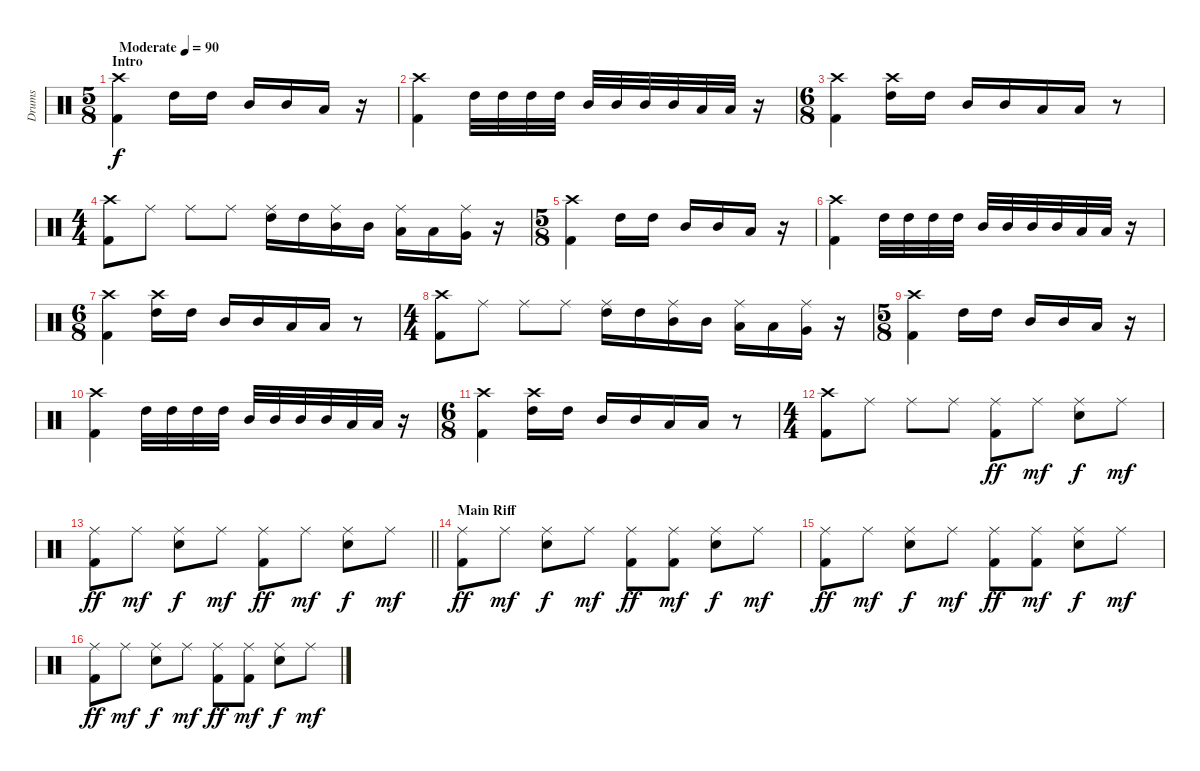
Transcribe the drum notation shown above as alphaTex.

\track ("Drums" "Drums") {instrument percussion}
\staff {score}
\articulation defaults
\ts (5 8)
\section ("" "Intro")
\tempo (90 "Moderate")
\clef neutral
\ks c
("Crash high (hit)" "Kick (hit) 2").4{dy f} "High Tom (hit)".16 "High Tom (hit)".16 "Mid Tom (hit)".16 "Mid Tom (hit)".16 "Low Tom (hit)".16 r.16 |
("Crash high (hit)" "Kick (hit) 2").4 "High Tom (hit)".32 "High Tom (hit)".32 "High Tom (hit)".32 "High Tom (hit)".32 "Mid Tom (hit)".32 "Mid Tom (hit)".32 "Mid Tom (hit)".32 "Mid Tom (hit)".32 "Low Tom (hit)".32 "Low Tom (hit)".32 r.16 |
\ts (6 8)
("Crash high (hit)" "Kick (hit) 2").4 ("Crash high (hit)" "High Tom (hit)").16 "High Tom (hit)".16 "Mid Tom (hit)".16 "Mid Tom (hit)".16 "Low Tom (hit)".16 "Low Tom (hit)".16 r.8 |
\ts (4 4)
("Crash high (hit)" "Kick (hit) 2").8 "Ride (middle)".8 "Ride (middle)".8 "Ride (middle)".8 ("Ride (middle)" "High Tom (hit)").16 "High Tom (hit)".16 ("Ride (middle)" "Mid Tom (hit)").16 "Mid Tom (hit)".16 ("Ride (middle)" "Low Tom (hit)").16 "Low Tom (hit)".16 ("Ride (middle)" "Very Low Tom (hit)").16 r.16 |
\ts (5 8)
("Crash high (hit)" "Kick (hit) 2").4 "High Tom (hit)".16 "High Tom (hit)".16 "Mid Tom (hit)".16 "Mid Tom (hit)".16 "Low Tom (hit)".16 r.16 |
("Crash high (hit)" "Kick (hit) 2").4 "High Tom (hit)".32 "High Tom (hit)".32 "High Tom (hit)".32 "High Tom (hit)".32 "Mid Tom (hit)".32 "Mid Tom (hit)".32 "Mid Tom (hit)".32 "Mid Tom (hit)".32 "Low Tom (hit)".32 "Low Tom (hit)".32 r.16 |
\ts (6 8)
("Crash high (hit)" "Kick (hit) 2").4 ("Crash high (hit)" "High Tom (hit)").16 "High Tom (hit)".16 "Mid Tom (hit)".16 "Mid Tom (hit)".16 "Low Tom (hit)".16 "Low Tom (hit)".16 r.8 |
\ts (4 4)
("Crash high (hit)" "Kick (hit) 2").8 "Ride (middle)".8 "Ride (middle)".8 "Ride (middle)".8 ("Ride (middle)" "High Tom (hit)").16 "High Tom (hit)".16 ("Ride (middle)" "Mid Tom (hit)").16 "Mid Tom (hit)".16 ("Ride (middle)" "Low Tom (hit)").16 "Low Tom (hit)".16 ("Ride (middle)" "Very Low Tom (hit)").16 r.16 |
\ts (5 8)
("Crash high (hit)" "Kick (hit) 2").4 "High Tom (hit)".16 "High Tom (hit)".16 "Mid Tom (hit)".16 "Mid Tom (hit)".16 "Low Tom (hit)".16 r.16 |
("Crash high (hit)" "Kick (hit) 2").4 "High Tom (hit)".32 "High Tom (hit)".32 "High Tom (hit)".32 "High Tom (hit)".32 "Mid Tom (hit)".32 "Mid Tom (hit)".32 "Mid Tom (hit)".32 "Mid Tom (hit)".32 "Low Tom (hit)".32 "Low Tom (hit)".32 r.16 |
\ts (6 8)
("Crash high (hit)" "Kick (hit) 2").4 ("Crash high (hit)" "High Tom (hit)").16 "High Tom (hit)".16 "Mid Tom (hit)".16 "Mid Tom (hit)".16 "Low Tom (hit)".16 "Low Tom (hit)".16 r.8 |
\ts (4 4)
("Crash high (hit)" "Kick (hit) 2").8 "Ride (middle)".8 "Ride (middle)".8 "Ride (middle)".8 ("Ride (middle)" "Kick (hit) 2").8{dy ff} "Ride (middle)".8{dy mf} ("Ride (middle)" "Electric Snare (hit)").8{dy f} "Ride (middle)".8{dy mf} |
\barLineRight lightlight
("Ride (middle)" "Kick (hit) 2").8{dy ff} "Ride (middle)".8{dy mf} ("Ride (middle)" "Electric Snare (hit)").8{dy f} "Ride (middle)".8{dy mf} ("Ride (middle)" "Kick (hit) 2").8{dy ff} "Ride (middle)".8{dy mf} ("Ride (middle)" "Electric Snare (hit)").8{dy f} "Ride (middle)".8{dy mf} |
\section ("" "Main Riff")
("Ride (middle)" "Kick (hit) 2").8{dy ff} "Ride (middle)".8{dy mf} ("Ride (middle)" "Electric Snare (hit)").8{dy f} "Ride (middle)".8{dy mf} ("Ride (middle)" "Kick (hit) 2").8{dy ff} ("Ride (middle)" "Kick (hit) 2").8{dy mf} ("Ride (middle)" "Electric Snare (hit)").8{dy f} "Ride (middle)".8{dy mf} |
("Ride (middle)" "Kick (hit) 2").8{dy ff} "Ride (middle)".8{dy mf} ("Ride (middle)" "Electric Snare (hit)").8{dy f} "Ride (middle)".8{dy mf} ("Ride (middle)" "Kick (hit) 2").8{dy ff} ("Ride (middle)" "Kick (hit) 2").8{dy mf} ("Ride (middle)" "Electric Snare (hit)").8{dy f} "Ride (middle)".8{dy mf} |
("Ride (middle)" "Kick (hit) 2").8{dy ff} "Ride (middle)".8{dy mf} ("Ride (middle)" "Electric Snare (hit)").8{dy f} "Ride (middle)".8{dy mf} ("Ride (middle)" "Kick (hit) 2").8{dy ff} ("Ride (middle)" "Kick (hit) 2").8{dy mf} ("Ride (middle)" "Electric Snare (hit)").8{dy f} "Ride (middle)".8{dy mf}
